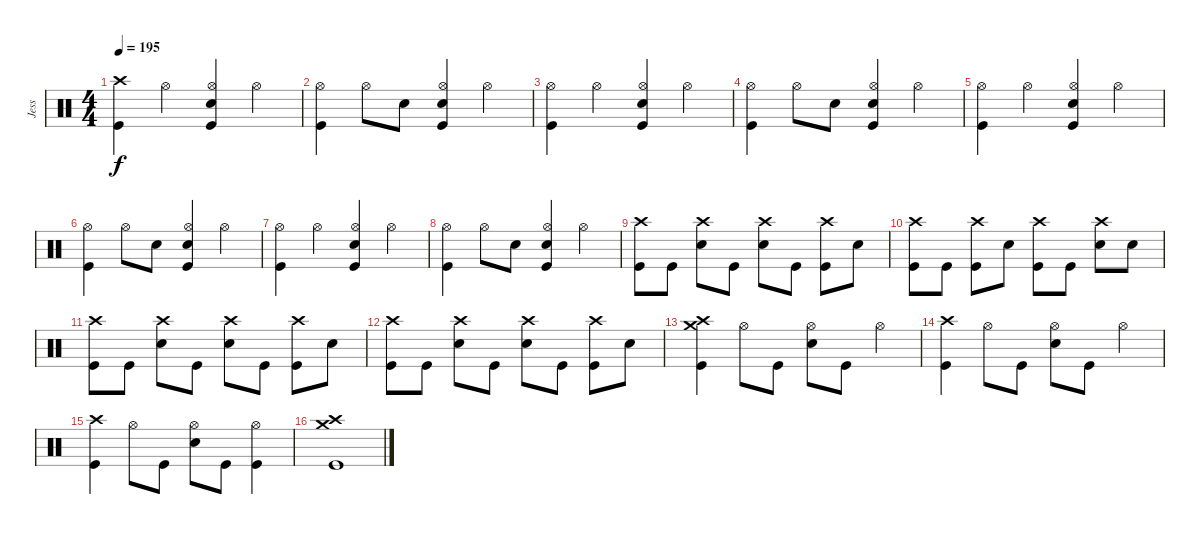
\track ("Jess" "Jess") {instrument percussion}
\staff {score}
\articulation defaults
\ts (4 4)
\tempo 195
\clef neutral
\ks c
("Crash high (hit)" "Kick (hit)").4{dy f} "Hi-Hat (open)".4 ("Hi-Hat (open)" "Electric Snare (hit)" "Kick (hit)").4 "Hi-Hat (open)".4 |
("Hi-Hat (open)" "Kick (hit)").4 "Hi-Hat (open)".8 "Electric Snare (hit)".8 ("Hi-Hat (open)" "Electric Snare (hit)" "Kick (hit)").4 "Hi-Hat (open)".4 |
("Hi-Hat (open)" "Kick (hit)").4 "Hi-Hat (open)".4 ("Hi-Hat (open)" "Electric Snare (hit)" "Kick (hit)").4 "Hi-Hat (open)".4 |
("Hi-Hat (open)" "Kick (hit)").4 "Hi-Hat (open)".8 "Electric Snare (hit)".8 ("Hi-Hat (open)" "Electric Snare (hit)" "Kick (hit)").4 "Hi-Hat (open)".4 |
("Hi-Hat (open)" "Kick (hit)").4 "Hi-Hat (open)".4 ("Hi-Hat (open)" "Electric Snare (hit)" "Kick (hit)").4 "Hi-Hat (open)".4 |
("Hi-Hat (open)" "Kick (hit)").4 "Hi-Hat (open)".8 "Electric Snare (hit)".8 ("Hi-Hat (open)" "Electric Snare (hit)" "Kick (hit)").4 "Hi-Hat (open)".4 |
("Hi-Hat (open)" "Kick (hit)").4 "Hi-Hat (open)".4 ("Hi-Hat (open)" "Electric Snare (hit)" "Kick (hit)").4 "Hi-Hat (open)".4 |
("Hi-Hat (open)" "Kick (hit)").4 "Hi-Hat (open)".8 "Electric Snare (hit)".8 ("Hi-Hat (open)" "Electric Snare (hit)" "Kick (hit)").4 "Hi-Hat (open)".4 |
("Crash high (hit)" "Kick (hit)").8 "Kick (hit)".8 ("Crash high (hit)" "Electric Snare (hit)").8 "Kick (hit)".8 ("Crash high (hit)" "Electric Snare (hit)").8 "Kick (hit)".8 ("Crash high (hit)" "Kick (hit)").8 "Electric Snare (hit)".8 |
("Crash high (hit)" "Kick (hit)").8 "Kick (hit)".8 ("Crash high (hit)" "Kick (hit)").8 "Electric Snare (hit)".8 ("Crash high (hit)" "Kick (hit)").8 "Kick (hit)".8 ("Crash high (hit)" "Electric Snare (hit)").8 "Electric Snare (hit)".8 |
("Crash high (hit)" "Kick (hit)").8 "Kick (hit)".8 ("Crash high (hit)" "Electric Snare (hit)").8 "Kick (hit)".8 ("Crash high (hit)" "Electric Snare (hit)").8 "Kick (hit)".8 ("Crash high (hit)" "Kick (hit)").8 "Electric Snare (hit)".8 |
("Crash high (hit)" "Kick (hit)").8 "Kick (hit)".8 ("Crash high (hit)" "Electric Snare (hit)").8 "Kick (hit)".8 ("Crash high (hit)" "Electric Snare (hit)").8 "Kick (hit)".8 ("Crash high (hit)" "Kick (hit)").8 "Electric Snare (hit)".8 |
("Crash high (hit)" "Crash medium (hit)" "Kick (hit)").4 "Hi-Hat (open)".8 "Kick (hit)".8 ("Hi-Hat (open)" "Electric Snare (hit)").8 "Kick (hit)".8 "Hi-Hat (open)".4 |
("Crash high (hit)" "Kick (hit)").4 "Hi-Hat (open)".8 "Kick (hit)".8 ("Hi-Hat (open)" "Electric Snare (hit)").8 "Kick (hit)".8 "Hi-Hat (open)".4 |
("Crash high (hit)" "Kick (hit)").4 "Hi-Hat (open)".8 "Kick (hit)".8 ("Hi-Hat (open)" "Electric Snare (hit)").8 "Kick (hit)".8 ("Hi-Hat (open)" "Kick (hit)").4 |
("Crash high (hit)" "Crash medium (hit)" "Kick (hit)").1
